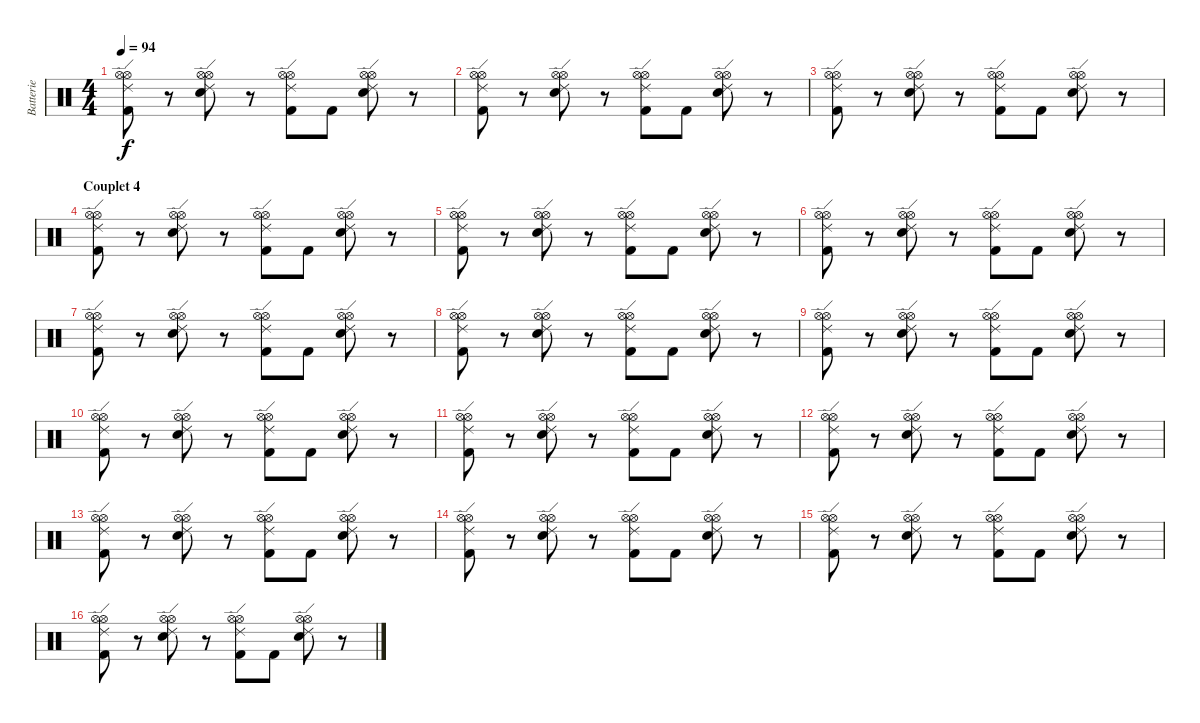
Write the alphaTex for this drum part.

\track ("Batterie" "Batterie") {instrument percussion}
\staff {score}
\articulation defaults
\ts (4 4)
\tempo 94
\clef neutral
\ks c
("Hi-Hat (open)" "Hi-Hat (open)" "Ride (edge) 2" "Kick (hit) 2").8{dy f} r.8 ("Snare (hit) 2" "Hi-Hat (open)" "Hi-Hat (open)" "Ride (edge) 2").8 r.8 ("Hi-Hat (open)" "Hi-Hat (open)" "Ride (edge) 2" "Kick (hit) 2").8 "Kick (hit) 2".8 ("Snare (hit) 2" "Hi-Hat (open)" "Hi-Hat (open)" "Ride (edge) 2").8 r.8 |
("Hi-Hat (open)" "Hi-Hat (open)" "Ride (edge) 2" "Kick (hit) 2").8 r.8 ("Snare (hit) 2" "Hi-Hat (open)" "Hi-Hat (open)" "Ride (edge) 2").8 r.8 ("Hi-Hat (open)" "Hi-Hat (open)" "Ride (edge) 2" "Kick (hit) 2").8 "Kick (hit) 2".8 ("Snare (hit) 2" "Hi-Hat (open)" "Hi-Hat (open)" "Ride (edge) 2").8 r.8 |
("Hi-Hat (open)" "Hi-Hat (open)" "Ride (edge) 2" "Kick (hit) 2").8 r.8 ("Snare (hit) 2" "Hi-Hat (open)" "Hi-Hat (open)" "Ride (edge) 2").8 r.8 ("Hi-Hat (open)" "Hi-Hat (open)" "Ride (edge) 2" "Kick (hit) 2").8 "Kick (hit) 2".8 ("Snare (hit) 2" "Hi-Hat (open)" "Hi-Hat (open)" "Ride (edge) 2").8 r.8 |
\section ("" "Couplet 4")
("Hi-Hat (open)" "Hi-Hat (open)" "Ride (edge) 2" "Kick (hit) 2").8 r.8 ("Snare (hit) 2" "Hi-Hat (open)" "Hi-Hat (open)" "Ride (edge) 2").8 r.8 ("Hi-Hat (open)" "Hi-Hat (open)" "Ride (edge) 2" "Kick (hit) 2").8 "Kick (hit) 2".8 ("Snare (hit) 2" "Hi-Hat (open)" "Hi-Hat (open)" "Ride (edge) 2").8 r.8 |
("Hi-Hat (open)" "Hi-Hat (open)" "Ride (edge) 2" "Kick (hit) 2").8 r.8 ("Snare (hit) 2" "Hi-Hat (open)" "Hi-Hat (open)" "Ride (edge) 2").8 r.8 ("Hi-Hat (open)" "Hi-Hat (open)" "Ride (edge) 2" "Kick (hit) 2").8 "Kick (hit) 2".8 ("Snare (hit) 2" "Hi-Hat (open)" "Hi-Hat (open)" "Ride (edge) 2").8 r.8 |
("Hi-Hat (open)" "Hi-Hat (open)" "Ride (edge) 2" "Kick (hit) 2").8 r.8 ("Snare (hit) 2" "Hi-Hat (open)" "Hi-Hat (open)" "Ride (edge) 2").8 r.8 ("Hi-Hat (open)" "Hi-Hat (open)" "Ride (edge) 2" "Kick (hit) 2").8 "Kick (hit) 2".8 ("Snare (hit) 2" "Hi-Hat (open)" "Hi-Hat (open)" "Ride (edge) 2").8 r.8 |
("Hi-Hat (open)" "Hi-Hat (open)" "Ride (edge) 2" "Kick (hit) 2").8 r.8 ("Snare (hit) 2" "Hi-Hat (open)" "Hi-Hat (open)" "Ride (edge) 2").8 r.8 ("Hi-Hat (open)" "Hi-Hat (open)" "Ride (edge) 2" "Kick (hit) 2").8 "Kick (hit) 2".8 ("Snare (hit) 2" "Hi-Hat (open)" "Hi-Hat (open)" "Ride (edge) 2").8 r.8 |
("Hi-Hat (open)" "Hi-Hat (open)" "Ride (edge) 2" "Kick (hit) 2").8 r.8 ("Snare (hit) 2" "Hi-Hat (open)" "Hi-Hat (open)" "Ride (edge) 2").8 r.8 ("Hi-Hat (open)" "Hi-Hat (open)" "Ride (edge) 2" "Kick (hit) 2").8 "Kick (hit) 2".8 ("Snare (hit) 2" "Hi-Hat (open)" "Hi-Hat (open)" "Ride (edge) 2").8 r.8 |
("Hi-Hat (open)" "Hi-Hat (open)" "Ride (edge) 2" "Kick (hit) 2").8 r.8 ("Snare (hit) 2" "Hi-Hat (open)" "Hi-Hat (open)" "Ride (edge) 2").8 r.8 ("Hi-Hat (open)" "Hi-Hat (open)" "Ride (edge) 2" "Kick (hit) 2").8 "Kick (hit) 2".8 ("Snare (hit) 2" "Hi-Hat (open)" "Hi-Hat (open)" "Ride (edge) 2").8 r.8 |
("Hi-Hat (open)" "Hi-Hat (open)" "Ride (edge) 2" "Kick (hit) 2").8 r.8 ("Snare (hit) 2" "Hi-Hat (open)" "Hi-Hat (open)" "Ride (edge) 2").8 r.8 ("Hi-Hat (open)" "Hi-Hat (open)" "Ride (edge) 2" "Kick (hit) 2").8 "Kick (hit) 2".8 ("Snare (hit) 2" "Hi-Hat (open)" "Hi-Hat (open)" "Ride (edge) 2").8 r.8 |
("Hi-Hat (open)" "Hi-Hat (open)" "Ride (edge) 2" "Kick (hit) 2").8 r.8 ("Snare (hit) 2" "Hi-Hat (open)" "Hi-Hat (open)" "Ride (edge) 2").8 r.8 ("Hi-Hat (open)" "Hi-Hat (open)" "Ride (edge) 2" "Kick (hit) 2").8 "Kick (hit) 2".8 ("Snare (hit) 2" "Hi-Hat (open)" "Hi-Hat (open)" "Ride (edge) 2").8 r.8 |
("Hi-Hat (open)" "Hi-Hat (open)" "Ride (edge) 2" "Kick (hit) 2").8 r.8 ("Snare (hit) 2" "Hi-Hat (open)" "Hi-Hat (open)" "Ride (edge) 2").8 r.8 ("Hi-Hat (open)" "Hi-Hat (open)" "Ride (edge) 2" "Kick (hit) 2").8 "Kick (hit) 2".8 ("Snare (hit) 2" "Hi-Hat (open)" "Hi-Hat (open)" "Ride (edge) 2").8 r.8 |
("Hi-Hat (open)" "Hi-Hat (open)" "Ride (edge) 2" "Kick (hit) 2").8 r.8 ("Snare (hit) 2" "Hi-Hat (open)" "Hi-Hat (open)" "Ride (edge) 2").8 r.8 ("Hi-Hat (open)" "Hi-Hat (open)" "Ride (edge) 2" "Kick (hit) 2").8 "Kick (hit) 2".8 ("Snare (hit) 2" "Hi-Hat (open)" "Hi-Hat (open)" "Ride (edge) 2").8 r.8 |
("Hi-Hat (open)" "Hi-Hat (open)" "Ride (edge) 2" "Kick (hit) 2").8 r.8 ("Snare (hit) 2" "Hi-Hat (open)" "Hi-Hat (open)" "Ride (edge) 2").8 r.8 ("Hi-Hat (open)" "Hi-Hat (open)" "Ride (edge) 2" "Kick (hit) 2").8 "Kick (hit) 2".8 ("Snare (hit) 2" "Hi-Hat (open)" "Hi-Hat (open)" "Ride (edge) 2").8 r.8 |
("Hi-Hat (open)" "Hi-Hat (open)" "Ride (edge) 2" "Kick (hit) 2").8 r.8 ("Snare (hit) 2" "Hi-Hat (open)" "Hi-Hat (open)" "Ride (edge) 2").8 r.8 ("Hi-Hat (open)" "Hi-Hat (open)" "Ride (edge) 2" "Kick (hit) 2").8 "Kick (hit) 2".8 ("Snare (hit) 2" "Hi-Hat (open)" "Hi-Hat (open)" "Ride (edge) 2").8 r.8 |
("Hi-Hat (open)" "Hi-Hat (open)" "Ride (edge) 2" "Kick (hit) 2").8 r.8 ("Snare (hit) 2" "Hi-Hat (open)" "Hi-Hat (open)" "Ride (edge) 2").8 r.8 ("Hi-Hat (open)" "Hi-Hat (open)" "Ride (edge) 2" "Kick (hit) 2").8 "Kick (hit) 2".8 ("Snare (hit) 2" "Hi-Hat (open)" "Hi-Hat (open)" "Ride (edge) 2").8 r.8
